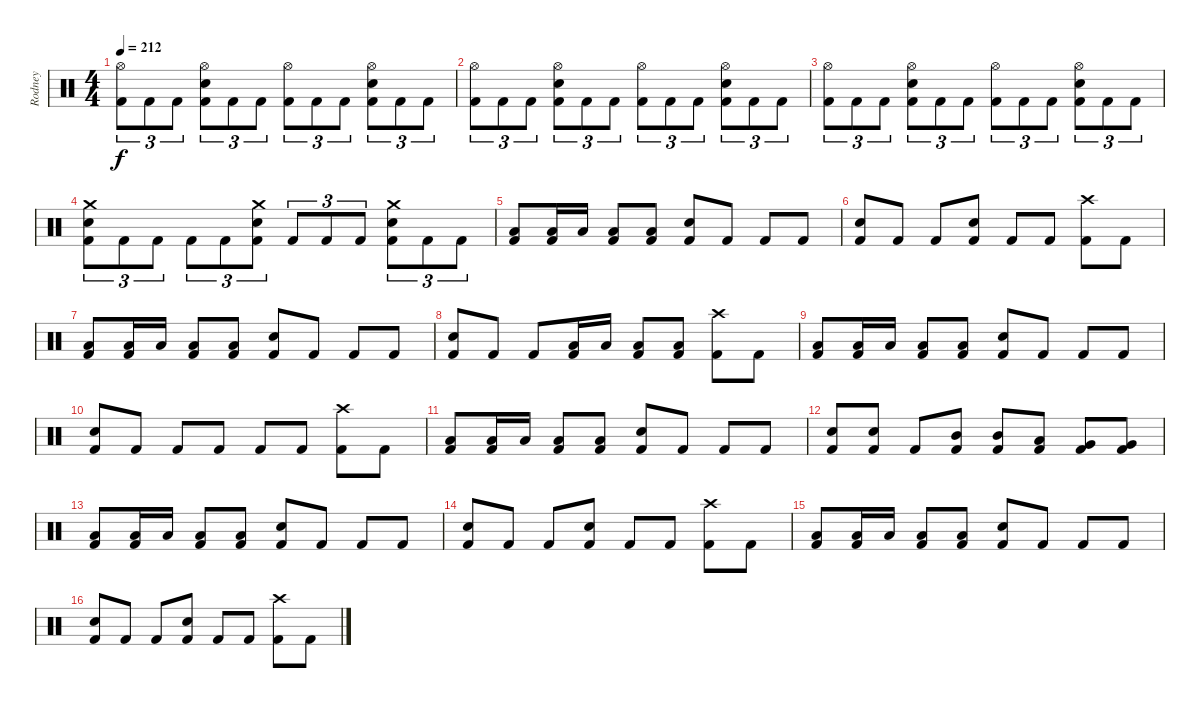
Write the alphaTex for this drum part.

\track ("Rodney" "Rodney") {instrument percussion}
\staff {score}
\articulation defaults
\ts (4 4)
\tempo 212
\clef neutral
\ks c
("Hi-Hat (open)" "Kick (hit) 2").8{tu (3 2) dy f} "Kick (hit) 2".8{tu (3 2)} "Kick (hit) 2".8{tu (3 2)} ("Hi-Hat (open)" "Snare (hit) 2" "Kick (hit) 2").8{tu (3 2)} "Kick (hit) 2".8{tu (3 2)} "Kick (hit) 2".8{tu (3 2)} ("Hi-Hat (open)" "Kick (hit) 2").8{tu (3 2)} "Kick (hit) 2".8{tu (3 2)} "Kick (hit) 2".8{tu (3 2)} ("Hi-Hat (open)" "Snare (hit) 2" "Kick (hit) 2").8{tu (3 2)} "Kick (hit) 2".8{tu (3 2)} "Kick (hit) 2".8{tu (3 2)} |
("Hi-Hat (open)" "Kick (hit) 2").8{tu (3 2)} "Kick (hit) 2".8{tu (3 2)} "Kick (hit) 2".8{tu (3 2)} ("Hi-Hat (open)" "Snare (hit) 2" "Kick (hit) 2").8{tu (3 2)} "Kick (hit) 2".8{tu (3 2)} "Kick (hit) 2".8{tu (3 2)} ("Hi-Hat (open)" "Kick (hit) 2").8{tu (3 2)} "Kick (hit) 2".8{tu (3 2)} "Kick (hit) 2".8{tu (3 2)} ("Hi-Hat (open)" "Snare (hit) 2" "Kick (hit) 2").8{tu (3 2)} "Kick (hit) 2".8{tu (3 2)} "Kick (hit) 2".8{tu (3 2)} |
("Hi-Hat (open)" "Kick (hit) 2").8{tu (3 2)} "Kick (hit) 2".8{tu (3 2)} "Kick (hit) 2".8{tu (3 2)} ("Hi-Hat (open)" "Snare (hit) 2" "Kick (hit) 2").8{tu (3 2)} "Kick (hit) 2".8{tu (3 2)} "Kick (hit) 2".8{tu (3 2)} ("Hi-Hat (open)" "Kick (hit) 2").8{tu (3 2)} "Kick (hit) 2".8{tu (3 2)} "Kick (hit) 2".8{tu (3 2)} ("Hi-Hat (open)" "Snare (hit) 2" "Kick (hit) 2").8{tu (3 2)} "Kick (hit) 2".8{tu (3 2)} "Kick (hit) 2".8{tu (3 2)} |
("Crash medium (hit)" "Snare (hit) 2" "Kick (hit) 2").8{tu (3 2)} "Kick (hit) 2".8{tu (3 2)} "Kick (hit) 2".8{tu (3 2)} "Kick (hit) 2".8{tu (3 2)} "Kick (hit) 2".8{tu (3 2)} ("Crash medium (hit)" "Snare (hit) 2" "Kick (hit) 2").8{tu (3 2)} "Kick (hit) 2".8{tu (3 2)} "Kick (hit) 2".8{tu (3 2)} "Kick (hit) 2".8{tu (3 2)} ("Crash medium (hit)" "Snare (hit) 2" "Kick (hit) 2").8{tu (3 2)} "Kick (hit) 2".8{tu (3 2)} "Kick (hit) 2".8{tu (3 2)} |
("Low Tom (hit)" "Kick (hit) 2").8 ("Low Tom (hit)" "Kick (hit) 2").16 "Low Tom (hit)".16 ("Low Tom (hit)" "Kick (hit) 2").8 ("Low Tom (hit)" "Kick (hit) 2").8 ("Snare (hit) 2" "Kick (hit) 2").8 "Kick (hit) 2".8 "Kick (hit) 2".8 "Kick (hit) 2".8 |
("Snare (hit) 2" "Kick (hit) 2").8 "Kick (hit) 2".8 "Kick (hit) 2".8 ("Snare (hit) 2" "Kick (hit) 2").8 "Kick (hit) 2".8 "Kick (hit) 2".8 ("Crash high (hit)" "Kick (hit) 2").8 "Kick (hit) 2".8 |
("Low Tom (hit)" "Kick (hit) 2").8 ("Low Tom (hit)" "Kick (hit) 2").16 "Low Tom (hit)".16 ("Low Tom (hit)" "Kick (hit) 2").8 ("Low Tom (hit)" "Kick (hit) 2").8 ("Snare (hit) 2" "Kick (hit) 2").8 "Kick (hit) 2".8 "Kick (hit) 2".8 "Kick (hit) 2".8 |
("Snare (hit) 2" "Kick (hit) 2").8 "Kick (hit) 2".8 "Kick (hit) 2".8 ("Low Tom (hit)" "Kick (hit) 2").16 "Low Tom (hit)".16 ("Low Tom (hit)" "Kick (hit) 2").8 ("Low Tom (hit)" "Kick (hit) 2").8 ("Crash high (hit)" "Kick (hit) 2").8 "Kick (hit) 2".8 |
("Low Tom (hit)" "Kick (hit) 2").8 ("Low Tom (hit)" "Kick (hit) 2").16 "Low Tom (hit)".16 ("Low Tom (hit)" "Kick (hit) 2").8 ("Low Tom (hit)" "Kick (hit) 2").8 ("Snare (hit) 2" "Kick (hit) 2").8 "Kick (hit) 2".8 "Kick (hit) 2".8 "Kick (hit) 2".8 |
("Snare (hit) 2" "Kick (hit) 2").8 "Kick (hit) 2".8 "Kick (hit) 2".8 "Kick (hit) 2".8 "Kick (hit) 2".8 "Kick (hit) 2".8 ("Crash high (hit)" "Kick (hit) 2").8 "Kick (hit) 2".8 |
("Low Tom (hit)" "Kick (hit) 2").8 ("Low Tom (hit)" "Kick (hit) 2").16 "Low Tom (hit)".16 ("Low Tom (hit)" "Kick (hit) 2").8 ("Low Tom (hit)" "Kick (hit) 2").8 ("Snare (hit) 2" "Kick (hit) 2").8 "Kick (hit) 2".8 "Kick (hit) 2".8 "Kick (hit) 2".8 |
("Snare (hit) 2" "Kick (hit) 2").8 ("Snare (hit) 2" "Kick (hit) 2").8 "Kick (hit) 2".8 ("Mid Tom (hit)" "Kick (hit) 2").8 ("Mid Tom (hit)" "Kick (hit) 2").8 ("Low Tom (hit)" "Kick (hit) 2").8 ("Very Low Tom (hit)" "Kick (hit) 2").8 ("Very Low Tom (hit)" "Kick (hit) 2").8 |
("Low Tom (hit)" "Kick (hit) 2").8 ("Low Tom (hit)" "Kick (hit) 2").16 "Low Tom (hit)".16 ("Low Tom (hit)" "Kick (hit) 2").8 ("Low Tom (hit)" "Kick (hit) 2").8 ("Snare (hit) 2" "Kick (hit) 2").8 "Kick (hit) 2".8 "Kick (hit) 2".8 "Kick (hit) 2".8 |
("Snare (hit) 2" "Kick (hit) 2").8 "Kick (hit) 2".8 "Kick (hit) 2".8 ("Snare (hit) 2" "Kick (hit) 2").8 "Kick (hit) 2".8 "Kick (hit) 2".8 ("Crash high (hit)" "Kick (hit) 2").8 "Kick (hit) 2".8 |
("Low Tom (hit)" "Kick (hit) 2").8 ("Low Tom (hit)" "Kick (hit) 2").16 "Low Tom (hit)".16 ("Low Tom (hit)" "Kick (hit) 2").8 ("Low Tom (hit)" "Kick (hit) 2").8 ("Snare (hit) 2" "Kick (hit) 2").8 "Kick (hit) 2".8 "Kick (hit) 2".8 "Kick (hit) 2".8 |
("Snare (hit) 2" "Kick (hit) 2").8 "Kick (hit) 2".8 "Kick (hit) 2".8 ("Snare (hit) 2" "Kick (hit) 2").8 "Kick (hit) 2".8 "Kick (hit) 2".8 ("Crash high (hit)" "Kick (hit) 2").8 "Kick (hit) 2".8
